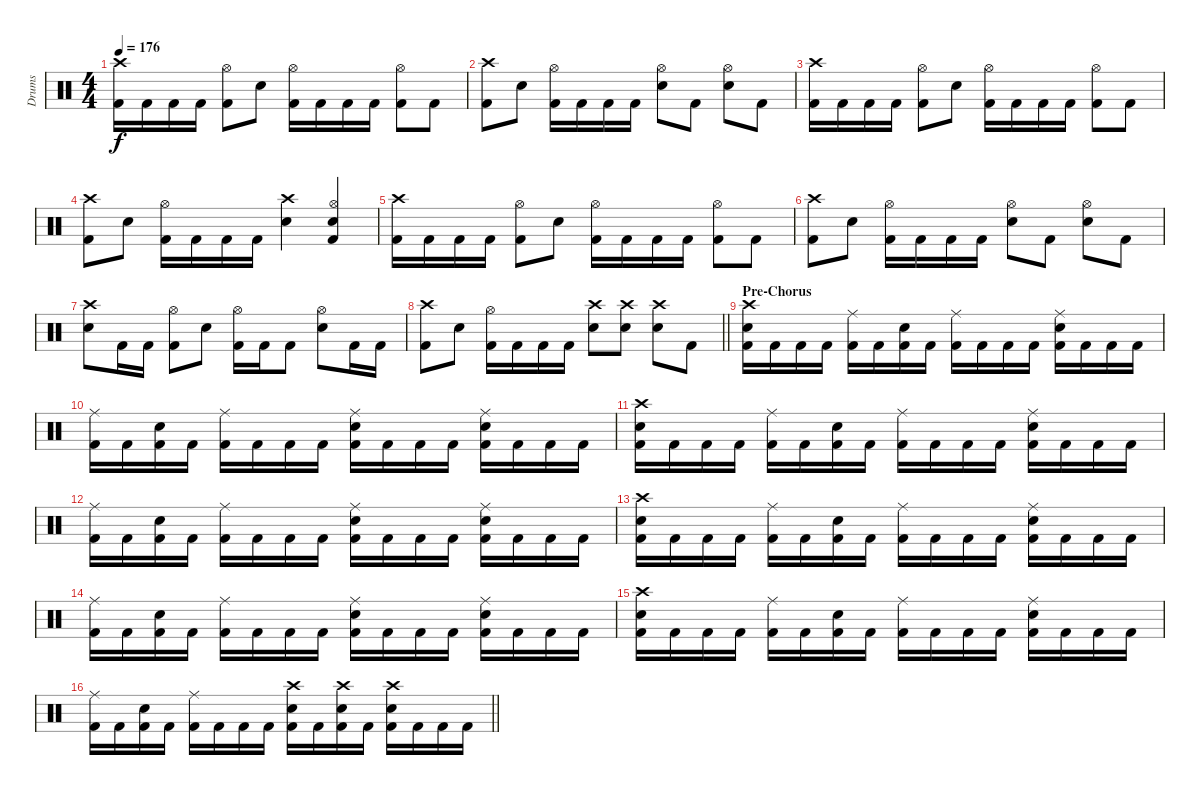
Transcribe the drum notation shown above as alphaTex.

\track ("Drums" "Drums") {instrument percussion}
\staff {score}
\articulation defaults
\ts (4 4)
\tempo 176
\clef neutral
\ks c
("Crash high (hit)" "Kick (hit) 2").16{dy f} "Kick (hit) 2".16 "Kick (hit) 2".16 "Kick (hit) 2".16 ("Hi-Hat (open)" "Kick (hit) 2").8 "Snare (hit) 2".8 ("Hi-Hat (open)" "Kick (hit) 2").16 "Kick (hit) 2".16 "Kick (hit) 2".16 "Kick (hit) 2".16 ("Hi-Hat (open)" "Kick (hit) 2").8 "Kick (hit) 2".8 |
("Crash high (hit)" "Kick (hit) 2").8 "Snare (hit) 2".8 ("Hi-Hat (open)" "Kick (hit) 2").16 "Kick (hit) 2".16 "Kick (hit) 2".16 "Kick (hit) 2".16 ("Hi-Hat (open)" "Snare (hit) 2").8 "Kick (hit) 2".8 ("Hi-Hat (open)" "Snare (hit) 2").8 "Kick (hit) 2".8 |
("Crash high (hit)" "Kick (hit) 2").16 "Kick (hit) 2".16 "Kick (hit) 2".16 "Kick (hit) 2".16 ("Hi-Hat (open)" "Kick (hit) 2").8 "Snare (hit) 2".8 ("Hi-Hat (open)" "Kick (hit) 2").16 "Kick (hit) 2".16 "Kick (hit) 2".16 "Kick (hit) 2".16 ("Hi-Hat (open)" "Kick (hit) 2").8 "Kick (hit) 2".8 |
("Crash high (hit)" "Kick (hit) 2").8 "Snare (hit) 2".8 ("Hi-Hat (open)" "Kick (hit) 2").16 "Kick (hit) 2".16 "Kick (hit) 2".16 "Kick (hit) 2".16 ("Crash high (hit)" "Snare (hit) 2").4 ("Hi-Hat (open)" "Snare (hit) 2" "Kick (hit) 2").4 |
("Crash high (hit)" "Kick (hit) 2").16 "Kick (hit) 2".16 "Kick (hit) 2".16 "Kick (hit) 2".16 ("Hi-Hat (open)" "Kick (hit) 2").8 "Snare (hit) 2".8 ("Hi-Hat (open)" "Kick (hit) 2").16 "Kick (hit) 2".16 "Kick (hit) 2".16 "Kick (hit) 2".16 ("Hi-Hat (open)" "Kick (hit) 2").8 "Kick (hit) 2".8 |
("Crash high (hit)" "Kick (hit) 2").8 "Snare (hit) 2".8 ("Hi-Hat (open)" "Kick (hit) 2").16 "Kick (hit) 2".16 "Kick (hit) 2".16 "Kick (hit) 2".16 ("Hi-Hat (open)" "Snare (hit) 2").8 "Kick (hit) 2".8 ("Hi-Hat (open)" "Snare (hit) 2").8 "Kick (hit) 2".8 |
("Crash high (hit)" "Snare (hit) 2").8 "Kick (hit) 2".16 "Kick (hit) 2".16 ("Hi-Hat (open)" "Kick (hit) 2").8 "Snare (hit) 2".8 ("Hi-Hat (open)" "Kick (hit) 2").16 "Kick (hit) 2".16 "Kick (hit) 2".8 ("Hi-Hat (open)" "Snare (hit) 2").8 "Kick (hit) 2".16 "Kick (hit) 2".16 |
\barLineRight lightlight
("Crash high (hit)" "Kick (hit) 2").8 "Snare (hit) 2".8 ("Hi-Hat (open)" "Kick (hit) 2").16 "Kick (hit) 2".16 "Kick (hit) 2".16 "Kick (hit) 2".16 ("Crash high (hit)" "Snare (hit) 2").8 ("Crash high (hit)" "Snare (hit) 2").8 ("Crash high (hit)" "Snare (hit) 2").8 "Kick (hit) 2".8 |
\section ("" "Pre-Chorus")
("Crash high (hit)" "Snare (hit) 2" "Kick (hit) 2").16 "Kick (hit) 2".16 "Kick (hit) 2".16 "Kick (hit) 2".16 ("Ride (middle)" "Kick (hit) 2").16 "Kick (hit) 2".16 ("Snare (hit) 2" "Kick (hit) 2").16 "Kick (hit) 2".16 ("Ride (middle)" "Kick (hit) 2").16 "Kick (hit) 2".16 "Kick (hit) 2".16 "Kick (hit) 2".16 ("Ride (middle)" "Snare (hit) 2" "Kick (hit) 2").16 "Kick (hit) 2".16 "Kick (hit) 2".16 "Kick (hit) 2".16 |
("Ride (middle)" "Kick (hit) 2").16 "Kick (hit) 2".16 ("Snare (hit) 2" "Kick (hit) 2").16 "Kick (hit) 2".16 ("Ride (middle)" "Kick (hit) 2").16 "Kick (hit) 2".16 "Kick (hit) 2".16 "Kick (hit) 2".16 ("Ride (middle)" "Snare (hit) 2" "Kick (hit) 2").16 "Kick (hit) 2".16 "Kick (hit) 2".16 "Kick (hit) 2".16 ("Ride (middle)" "Snare (hit) 2" "Kick (hit) 2").16 "Kick (hit) 2".16 "Kick (hit) 2".16 "Kick (hit) 2".16 |
("Crash high (hit)" "Snare (hit) 2" "Kick (hit) 2").16 "Kick (hit) 2".16 "Kick (hit) 2".16 "Kick (hit) 2".16 ("Ride (middle)" "Kick (hit) 2").16 "Kick (hit) 2".16 ("Snare (hit) 2" "Kick (hit) 2").16 "Kick (hit) 2".16 ("Ride (middle)" "Kick (hit) 2").16 "Kick (hit) 2".16 "Kick (hit) 2".16 "Kick (hit) 2".16 ("Ride (middle)" "Snare (hit) 2" "Kick (hit) 2").16 "Kick (hit) 2".16 "Kick (hit) 2".16 "Kick (hit) 2".16 |
("Ride (middle)" "Kick (hit) 2").16 "Kick (hit) 2".16 ("Snare (hit) 2" "Kick (hit) 2").16 "Kick (hit) 2".16 ("Ride (middle)" "Kick (hit) 2").16 "Kick (hit) 2".16 "Kick (hit) 2".16 "Kick (hit) 2".16 ("Ride (middle)" "Snare (hit) 2" "Kick (hit) 2").16 "Kick (hit) 2".16 "Kick (hit) 2".16 "Kick (hit) 2".16 ("Ride (middle)" "Snare (hit) 2" "Kick (hit) 2").16 "Kick (hit) 2".16 "Kick (hit) 2".16 "Kick (hit) 2".16 |
("Crash high (hit)" "Snare (hit) 2" "Kick (hit) 2").16 "Kick (hit) 2".16 "Kick (hit) 2".16 "Kick (hit) 2".16 ("Ride (middle)" "Kick (hit) 2").16 "Kick (hit) 2".16 ("Snare (hit) 2" "Kick (hit) 2").16 "Kick (hit) 2".16 ("Ride (middle)" "Kick (hit) 2").16 "Kick (hit) 2".16 "Kick (hit) 2".16 "Kick (hit) 2".16 ("Ride (middle)" "Snare (hit) 2" "Kick (hit) 2").16 "Kick (hit) 2".16 "Kick (hit) 2".16 "Kick (hit) 2".16 |
("Ride (middle)" "Kick (hit) 2").16 "Kick (hit) 2".16 ("Snare (hit) 2" "Kick (hit) 2").16 "Kick (hit) 2".16 ("Ride (middle)" "Kick (hit) 2").16 "Kick (hit) 2".16 "Kick (hit) 2".16 "Kick (hit) 2".16 ("Ride (middle)" "Snare (hit) 2" "Kick (hit) 2").16 "Kick (hit) 2".16 "Kick (hit) 2".16 "Kick (hit) 2".16 ("Ride (middle)" "Snare (hit) 2" "Kick (hit) 2").16 "Kick (hit) 2".16 "Kick (hit) 2".16 "Kick (hit) 2".16 |
("Crash high (hit)" "Snare (hit) 2" "Kick (hit) 2").16 "Kick (hit) 2".16 "Kick (hit) 2".16 "Kick (hit) 2".16 ("Ride (middle)" "Kick (hit) 2").16 "Kick (hit) 2".16 ("Snare (hit) 2" "Kick (hit) 2").16 "Kick (hit) 2".16 ("Ride (middle)" "Kick (hit) 2").16 "Kick (hit) 2".16 "Kick (hit) 2".16 "Kick (hit) 2".16 ("Ride (middle)" "Snare (hit) 2" "Kick (hit) 2").16 "Kick (hit) 2".16 "Kick (hit) 2".16 "Kick (hit) 2".16 |
\barLineRight lightlight
("Ride (middle)" "Kick (hit) 2").16 "Kick (hit) 2".16 ("Snare (hit) 2" "Kick (hit) 2").16 "Kick (hit) 2".16 ("Ride (middle)" "Kick (hit) 2").16 "Kick (hit) 2".16 "Kick (hit) 2".16 "Kick (hit) 2".16 ("Crash high (hit)" "Snare (hit) 2" "Kick (hit) 2").16 "Kick (hit) 2".16 ("Crash high (hit)" "Snare (hit) 2" "Kick (hit) 2").16 "Kick (hit) 2".16 ("Crash high (hit)" "Snare (hit) 2" "Kick (hit) 2").16 "Kick (hit) 2".16 "Kick (hit) 2".16 "Kick (hit) 2".16
